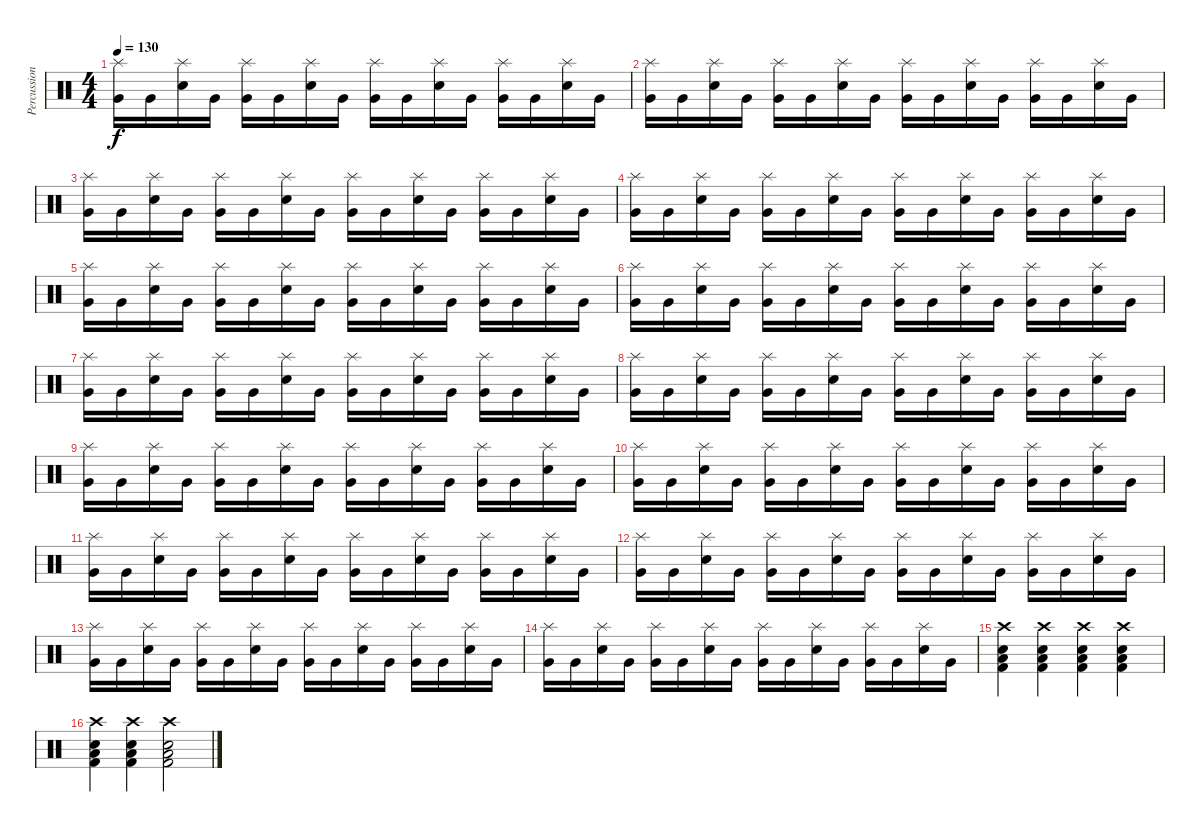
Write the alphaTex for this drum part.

\track ("Percussion" "Percussion") {instrument percussion}
\staff {score}
\articulation defaults
\ts (4 4)
\tempo 130
\clef neutral
\ks c
("Very Low Tom (hit)" "Splash (hit)").16{dy f} "Very Low Tom (hit)".16 ("Snare (hit) 2" "Splash (hit)").16 "Very Low Tom (hit)".16 ("Very Low Tom (hit)" "Splash (hit)").16 "Very Low Tom (hit)".16 ("Snare (hit) 2" "Splash (hit)").16 "Very Low Tom (hit)".16 ("Very Low Tom (hit)" "Splash (hit)").16 "Very Low Tom (hit)".16 ("Snare (hit) 2" "Splash (hit)").16 "Very Low Tom (hit)".16 ("Very Low Tom (hit)" "Splash (hit)").16 "Very Low Tom (hit)".16 ("Snare (hit) 2" "Splash (hit)").16 "Very Low Tom (hit)".16 |
("Very Low Tom (hit)" "Splash (hit)").16 "Very Low Tom (hit)".16 ("Snare (hit) 2" "Splash (hit)").16 "Very Low Tom (hit)".16 ("Very Low Tom (hit)" "Splash (hit)").16 "Very Low Tom (hit)".16 ("Snare (hit) 2" "Splash (hit)").16 "Very Low Tom (hit)".16 ("Very Low Tom (hit)" "Splash (hit)").16 "Very Low Tom (hit)".16 ("Snare (hit) 2" "Splash (hit)").16 "Very Low Tom (hit)".16 ("Very Low Tom (hit)" "Splash (hit)").16 "Very Low Tom (hit)".16 ("Snare (hit) 2" "Splash (hit)").16 "Very Low Tom (hit)".16 |
("Very Low Tom (hit)" "Splash (hit)").16 "Very Low Tom (hit)".16 ("Snare (hit) 2" "Splash (hit)").16 "Very Low Tom (hit)".16 ("Very Low Tom (hit)" "Splash (hit)").16 "Very Low Tom (hit)".16 ("Snare (hit) 2" "Splash (hit)").16 "Very Low Tom (hit)".16 ("Very Low Tom (hit)" "Splash (hit)").16 "Very Low Tom (hit)".16 ("Snare (hit) 2" "Splash (hit)").16 "Very Low Tom (hit)".16 ("Very Low Tom (hit)" "Splash (hit)").16 "Very Low Tom (hit)".16 ("Snare (hit) 2" "Splash (hit)").16 "Very Low Tom (hit)".16 |
("Very Low Tom (hit)" "Splash (hit)").16 "Very Low Tom (hit)".16 ("Snare (hit) 2" "Splash (hit)").16 "Very Low Tom (hit)".16 ("Very Low Tom (hit)" "Splash (hit)").16 "Very Low Tom (hit)".16 ("Snare (hit) 2" "Splash (hit)").16 "Very Low Tom (hit)".16 ("Very Low Tom (hit)" "Splash (hit)").16 "Very Low Tom (hit)".16 ("Snare (hit) 2" "Splash (hit)").16 "Very Low Tom (hit)".16 ("Very Low Tom (hit)" "Splash (hit)").16 "Very Low Tom (hit)".16 ("Snare (hit) 2" "Splash (hit)").16 "Very Low Tom (hit)".16 |
("Very Low Tom (hit)" "Splash (hit)").16 "Very Low Tom (hit)".16 ("Snare (hit) 2" "Splash (hit)").16 "Very Low Tom (hit)".16 ("Very Low Tom (hit)" "Splash (hit)").16 "Very Low Tom (hit)".16 ("Snare (hit) 2" "Splash (hit)").16 "Very Low Tom (hit)".16 ("Very Low Tom (hit)" "Splash (hit)").16 "Very Low Tom (hit)".16 ("Snare (hit) 2" "Splash (hit)").16 "Very Low Tom (hit)".16 ("Very Low Tom (hit)" "Splash (hit)").16 "Very Low Tom (hit)".16 ("Snare (hit) 2" "Splash (hit)").16 "Very Low Tom (hit)".16 |
("Very Low Tom (hit)" "Splash (hit)").16 "Very Low Tom (hit)".16 ("Snare (hit) 2" "Splash (hit)").16 "Very Low Tom (hit)".16 ("Very Low Tom (hit)" "Splash (hit)").16 "Very Low Tom (hit)".16 ("Snare (hit) 2" "Splash (hit)").16 "Very Low Tom (hit)".16 ("Very Low Tom (hit)" "Splash (hit)").16 "Very Low Tom (hit)".16 ("Snare (hit) 2" "Splash (hit)").16 "Very Low Tom (hit)".16 ("Very Low Tom (hit)" "Splash (hit)").16 "Very Low Tom (hit)".16 ("Snare (hit) 2" "Splash (hit)").16 "Very Low Tom (hit)".16 |
("Very Low Tom (hit)" "Splash (hit)").16 "Very Low Tom (hit)".16 ("Snare (hit) 2" "Splash (hit)").16 "Very Low Tom (hit)".16 ("Very Low Tom (hit)" "Splash (hit)").16 "Very Low Tom (hit)".16 ("Snare (hit) 2" "Splash (hit)").16 "Very Low Tom (hit)".16 ("Very Low Tom (hit)" "Splash (hit)").16 "Very Low Tom (hit)".16 ("Snare (hit) 2" "Splash (hit)").16 "Very Low Tom (hit)".16 ("Very Low Tom (hit)" "Splash (hit)").16 "Very Low Tom (hit)".16 ("Snare (hit) 2" "Splash (hit)").16 "Very Low Tom (hit)".16 |
("Very Low Tom (hit)" "Splash (hit)").16 "Very Low Tom (hit)".16 ("Snare (hit) 2" "Splash (hit)").16 "Very Low Tom (hit)".16 ("Very Low Tom (hit)" "Splash (hit)").16 "Very Low Tom (hit)".16 ("Snare (hit) 2" "Splash (hit)").16 "Very Low Tom (hit)".16 ("Very Low Tom (hit)" "Splash (hit)").16 "Very Low Tom (hit)".16 ("Snare (hit) 2" "Splash (hit)").16 "Very Low Tom (hit)".16 ("Very Low Tom (hit)" "Splash (hit)").16 "Very Low Tom (hit)".16 ("Snare (hit) 2" "Splash (hit)").16 "Very Low Tom (hit)".16 |
("Very Low Tom (hit)" "Splash (hit)").16 "Very Low Tom (hit)".16 ("Snare (hit) 2" "Splash (hit)").16 "Very Low Tom (hit)".16 ("Very Low Tom (hit)" "Splash (hit)").16 "Very Low Tom (hit)".16 ("Snare (hit) 2" "Splash (hit)").16 "Very Low Tom (hit)".16 ("Very Low Tom (hit)" "Splash (hit)").16 "Very Low Tom (hit)".16 ("Snare (hit) 2" "Splash (hit)").16 "Very Low Tom (hit)".16 ("Very Low Tom (hit)" "Splash (hit)").16 "Very Low Tom (hit)".16 ("Snare (hit) 2" "Splash (hit)").16 "Very Low Tom (hit)".16 |
("Very Low Tom (hit)" "Splash (hit)").16 "Very Low Tom (hit)".16 ("Snare (hit) 2" "Splash (hit)").16 "Very Low Tom (hit)".16 ("Very Low Tom (hit)" "Splash (hit)").16 "Very Low Tom (hit)".16 ("Snare (hit) 2" "Splash (hit)").16 "Very Low Tom (hit)".16 ("Very Low Tom (hit)" "Splash (hit)").16 "Very Low Tom (hit)".16 ("Snare (hit) 2" "Splash (hit)").16 "Very Low Tom (hit)".16 ("Very Low Tom (hit)" "Splash (hit)").16 "Very Low Tom (hit)".16 ("Snare (hit) 2" "Splash (hit)").16 "Very Low Tom (hit)".16 |
("Very Low Tom (hit)" "Splash (hit)").16 "Very Low Tom (hit)".16 ("Snare (hit) 2" "Splash (hit)").16 "Very Low Tom (hit)".16 ("Very Low Tom (hit)" "Splash (hit)").16 "Very Low Tom (hit)".16 ("Snare (hit) 2" "Splash (hit)").16 "Very Low Tom (hit)".16 ("Very Low Tom (hit)" "Splash (hit)").16 "Very Low Tom (hit)".16 ("Snare (hit) 2" "Splash (hit)").16 "Very Low Tom (hit)".16 ("Very Low Tom (hit)" "Splash (hit)").16 "Very Low Tom (hit)".16 ("Snare (hit) 2" "Splash (hit)").16 "Very Low Tom (hit)".16 |
("Very Low Tom (hit)" "Splash (hit)").16 "Very Low Tom (hit)".16 ("Snare (hit) 2" "Splash (hit)").16 "Very Low Tom (hit)".16 ("Very Low Tom (hit)" "Splash (hit)").16 "Very Low Tom (hit)".16 ("Snare (hit) 2" "Splash (hit)").16 "Very Low Tom (hit)".16 ("Very Low Tom (hit)" "Splash (hit)").16 "Very Low Tom (hit)".16 ("Snare (hit) 2" "Splash (hit)").16 "Very Low Tom (hit)".16 ("Very Low Tom (hit)" "Splash (hit)").16 "Very Low Tom (hit)".16 ("Snare (hit) 2" "Splash (hit)").16 "Very Low Tom (hit)".16 |
("Very Low Tom (hit)" "Splash (hit)").16 "Very Low Tom (hit)".16 ("Snare (hit) 2" "Splash (hit)").16 "Very Low Tom (hit)".16 ("Very Low Tom (hit)" "Splash (hit)").16 "Very Low Tom (hit)".16 ("Snare (hit) 2" "Splash (hit)").16 "Very Low Tom (hit)".16 ("Very Low Tom (hit)" "Splash (hit)").16 "Very Low Tom (hit)".16 ("Snare (hit) 2" "Splash (hit)").16 "Very Low Tom (hit)".16 ("Very Low Tom (hit)" "Splash (hit)").16 "Very Low Tom (hit)".16 ("Snare (hit) 2" "Splash (hit)").16 "Very Low Tom (hit)".16 |
("Very Low Tom (hit)" "Splash (hit)").16 "Very Low Tom (hit)".16 ("Snare (hit) 2" "Splash (hit)").16 "Very Low Tom (hit)".16 ("Very Low Tom (hit)" "Splash (hit)").16 "Very Low Tom (hit)".16 ("Snare (hit) 2" "Splash (hit)").16 "Very Low Tom (hit)".16 ("Very Low Tom (hit)" "Splash (hit)").16 "Very Low Tom (hit)".16 ("Snare (hit) 2" "Splash (hit)").16 "Very Low Tom (hit)".16 ("Very Low Tom (hit)" "Splash (hit)").16 "Very Low Tom (hit)".16 ("Snare (hit) 2" "Splash (hit)").16 "Very Low Tom (hit)".16 |
("Crash high (hit)" "Snare (hit) 2" "Kick (hit) 2" "Low Floor Tom (hit)").4 ("Crash high (hit)" "Snare (hit) 2" "Kick (hit) 2" "Low Floor Tom (hit)").4 ("Crash high (hit)" "Snare (hit) 2" "Kick (hit) 2" "Low Floor Tom (hit)").4 ("Crash high (hit)" "Snare (hit) 2" "Kick (hit) 2" "Low Floor Tom (hit)").4 |
("Crash high (hit)" "Snare (hit) 2" "Kick (hit) 2" "Low Floor Tom (hit)").4 ("Crash high (hit)" "Snare (hit) 2" "Kick (hit) 2" "Low Floor Tom (hit)").4 ("Crash high (hit)" "Snare (hit) 2" "Kick (hit) 2" "Low Floor Tom (hit)").2
